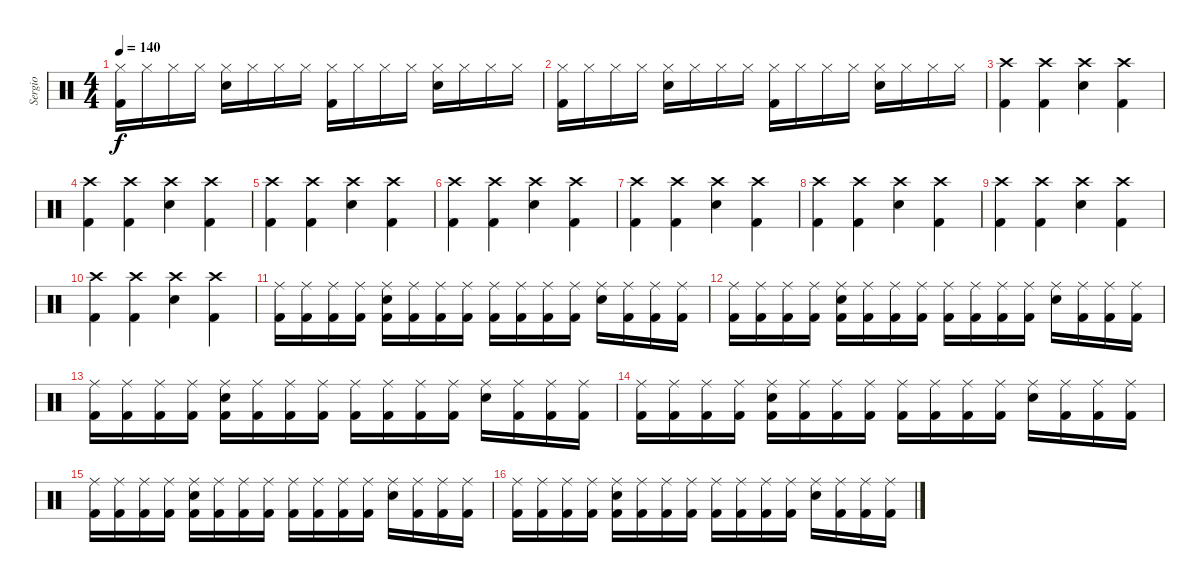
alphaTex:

\track ("Sergio" "Sergio") {instrument percussion}
\staff {score}
\articulation defaults
\ts (4 4)
\tempo 140
\clef neutral
\ks c
("Hi-Hat (closed)" "Kick (hit) 2").16{dy f} "Hi-Hat (closed)".16 "Hi-Hat (closed)".16 "Hi-Hat (closed)".16 ("Hi-Hat (closed)" "Electric Snare (hit)").16 "Hi-Hat (closed)".16 "Hi-Hat (closed)".16 "Hi-Hat (closed)".16 ("Hi-Hat (closed)" "Kick (hit) 2").16 "Hi-Hat (closed)".16 "Hi-Hat (closed)".16 "Hi-Hat (closed)".16 ("Hi-Hat (closed)" "Electric Snare (hit)").16 "Hi-Hat (closed)".16 "Hi-Hat (closed)".16 "Hi-Hat (closed)".16 |
("Hi-Hat (closed)" "Kick (hit) 2").16 "Hi-Hat (closed)".16 "Hi-Hat (closed)".16 "Hi-Hat (closed)".16 ("Hi-Hat (closed)" "Electric Snare (hit)").16 "Hi-Hat (closed)".16 "Hi-Hat (closed)".16 "Hi-Hat (closed)".16 ("Hi-Hat (closed)" "Kick (hit) 2").16 "Hi-Hat (closed)".16 "Hi-Hat (closed)".16 "Hi-Hat (closed)".16 ("Hi-Hat (closed)" "Electric Snare (hit)").16 "Hi-Hat (closed)".16 "Hi-Hat (closed)".16 "Hi-Hat (closed)".16 |
("Crash high (hit)" "Kick (hit) 2").4 ("Crash high (hit)" "Kick (hit) 2").4 ("Crash high (hit)" "Electric Snare (hit)").4 ("Crash high (hit)" "Kick (hit) 2").4 |
("Crash high (hit)" "Kick (hit) 2").4 ("Crash high (hit)" "Kick (hit) 2").4 ("Crash high (hit)" "Electric Snare (hit)").4 ("Crash high (hit)" "Kick (hit) 2").4 |
("Crash high (hit)" "Kick (hit) 2").4 ("Crash high (hit)" "Kick (hit) 2").4 ("Crash high (hit)" "Electric Snare (hit)").4 ("Crash high (hit)" "Kick (hit) 2").4 |
("Crash high (hit)" "Kick (hit) 2").4 ("Crash high (hit)" "Kick (hit) 2").4 ("Crash high (hit)" "Electric Snare (hit)").4 ("Crash high (hit)" "Kick (hit) 2").4 |
("Crash high (hit)" "Kick (hit) 2").4 ("Crash high (hit)" "Kick (hit) 2").4 ("Crash high (hit)" "Electric Snare (hit)").4 ("Crash high (hit)" "Kick (hit) 2").4 |
("Crash high (hit)" "Kick (hit) 2").4 ("Crash high (hit)" "Kick (hit) 2").4 ("Crash high (hit)" "Electric Snare (hit)").4 ("Crash high (hit)" "Kick (hit) 2").4 |
("Crash high (hit)" "Kick (hit) 2").4 ("Crash high (hit)" "Kick (hit) 2").4 ("Crash high (hit)" "Electric Snare (hit)").4 ("Crash high (hit)" "Kick (hit) 2").4 |
("Crash high (hit)" "Kick (hit) 2").4 ("Crash high (hit)" "Kick (hit) 2").4 ("Crash high (hit)" "Electric Snare (hit)").4 ("Crash high (hit)" "Kick (hit) 2").4 |
("Ride (middle)" "Kick (hit) 2").16 ("Ride (middle)" "Kick (hit) 2").16 ("Ride (middle)" "Kick (hit) 2").16 ("Ride (middle)" "Kick (hit) 2").16 ("Ride (middle)" "Kick (hit) 2" "Electric Snare (hit)").16 ("Ride (middle)" "Kick (hit) 2").16 ("Ride (middle)" "Kick (hit) 2").16 ("Ride (middle)" "Kick (hit) 2").16 ("Ride (middle)" "Kick (hit) 2").16 ("Ride (middle)" "Kick (hit) 2").16 ("Ride (middle)" "Kick (hit) 2").16 ("Ride (middle)" "Kick (hit) 2").16 ("Ride (middle)" "Electric Snare (hit)").16 ("Ride (middle)" "Kick (hit) 2").16 ("Ride (middle)" "Kick (hit) 2").16 ("Ride (middle)" "Kick (hit) 2").16 |
("Ride (middle)" "Kick (hit) 2").16 ("Ride (middle)" "Kick (hit) 2").16 ("Ride (middle)" "Kick (hit) 2").16 ("Ride (middle)" "Kick (hit) 2").16 ("Ride (middle)" "Kick (hit) 2" "Electric Snare (hit)").16 ("Ride (middle)" "Kick (hit) 2").16 ("Ride (middle)" "Kick (hit) 2").16 ("Ride (middle)" "Kick (hit) 2").16 ("Ride (middle)" "Kick (hit) 2").16 ("Ride (middle)" "Kick (hit) 2").16 ("Ride (middle)" "Kick (hit) 2").16 ("Ride (middle)" "Kick (hit) 2").16 ("Ride (middle)" "Electric Snare (hit)").16 ("Ride (middle)" "Kick (hit) 2").16 ("Ride (middle)" "Kick (hit) 2").16 ("Ride (middle)" "Kick (hit) 2").16 |
("Ride (middle)" "Kick (hit) 2").16 ("Ride (middle)" "Kick (hit) 2").16 ("Ride (middle)" "Kick (hit) 2").16 ("Ride (middle)" "Kick (hit) 2").16 ("Ride (middle)" "Kick (hit) 2" "Electric Snare (hit)").16 ("Ride (middle)" "Kick (hit) 2").16 ("Ride (middle)" "Kick (hit) 2").16 ("Ride (middle)" "Kick (hit) 2").16 ("Ride (middle)" "Kick (hit) 2").16 ("Ride (middle)" "Kick (hit) 2").16 ("Ride (middle)" "Kick (hit) 2").16 ("Ride (middle)" "Kick (hit) 2").16 ("Ride (middle)" "Electric Snare (hit)").16 ("Ride (middle)" "Kick (hit) 2").16 ("Ride (middle)" "Kick (hit) 2").16 ("Ride (middle)" "Kick (hit) 2").16 |
("Ride (middle)" "Kick (hit) 2").16 ("Ride (middle)" "Kick (hit) 2").16 ("Ride (middle)" "Kick (hit) 2").16 ("Ride (middle)" "Kick (hit) 2").16 ("Ride (middle)" "Kick (hit) 2" "Electric Snare (hit)").16 ("Ride (middle)" "Kick (hit) 2").16 ("Ride (middle)" "Kick (hit) 2").16 ("Ride (middle)" "Kick (hit) 2").16 ("Ride (middle)" "Kick (hit) 2").16 ("Ride (middle)" "Kick (hit) 2").16 ("Ride (middle)" "Kick (hit) 2").16 ("Ride (middle)" "Kick (hit) 2").16 ("Ride (middle)" "Electric Snare (hit)").16 ("Ride (middle)" "Kick (hit) 2").16 ("Ride (middle)" "Kick (hit) 2").16 ("Ride (middle)" "Kick (hit) 2").16 |
("Ride (middle)" "Kick (hit) 2").16 ("Ride (middle)" "Kick (hit) 2").16 ("Ride (middle)" "Kick (hit) 2").16 ("Ride (middle)" "Kick (hit) 2").16 ("Ride (middle)" "Kick (hit) 2" "Electric Snare (hit)").16 ("Ride (middle)" "Kick (hit) 2").16 ("Ride (middle)" "Kick (hit) 2").16 ("Ride (middle)" "Kick (hit) 2").16 ("Ride (middle)" "Kick (hit) 2").16 ("Ride (middle)" "Kick (hit) 2").16 ("Ride (middle)" "Kick (hit) 2").16 ("Ride (middle)" "Kick (hit) 2").16 ("Ride (middle)" "Electric Snare (hit)").16 ("Ride (middle)" "Kick (hit) 2").16 ("Ride (middle)" "Kick (hit) 2").16 ("Ride (middle)" "Kick (hit) 2").16 |
("Ride (middle)" "Kick (hit) 2").16 ("Ride (middle)" "Kick (hit) 2").16 ("Ride (middle)" "Kick (hit) 2").16 ("Ride (middle)" "Kick (hit) 2").16 ("Ride (middle)" "Kick (hit) 2" "Electric Snare (hit)").16 ("Ride (middle)" "Kick (hit) 2").16 ("Ride (middle)" "Kick (hit) 2").16 ("Ride (middle)" "Kick (hit) 2").16 ("Ride (middle)" "Kick (hit) 2").16 ("Ride (middle)" "Kick (hit) 2").16 ("Ride (middle)" "Kick (hit) 2").16 ("Ride (middle)" "Kick (hit) 2").16 ("Ride (middle)" "Electric Snare (hit)").16 ("Ride (middle)" "Kick (hit) 2").16 ("Ride (middle)" "Kick (hit) 2").16 ("Ride (middle)" "Kick (hit) 2").16
